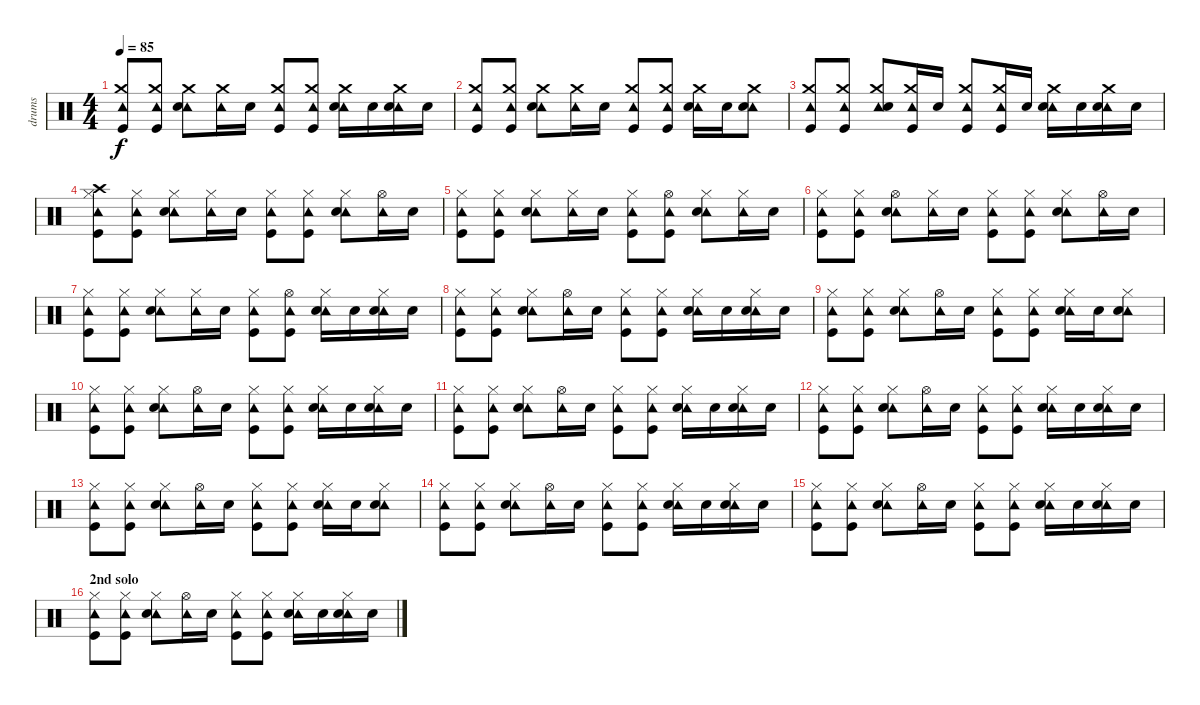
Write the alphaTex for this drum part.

\track ("drums" "drums") {instrument percussion}
\staff {score}
\articulation defaults
\ts (4 4)
\tempo 85
\clef neutral
\ks c
("Tambourine (hit)" "Crash medium (hit)" "Kick (hit)").8{dy f} ("Tambourine (hit)" "Crash medium (hit)" "Kick (hit)").8 ("Tambourine (hit)" "Crash medium (hit)" "Electric Snare (hit)").8 ("Tambourine (hit)" "Crash medium (hit)").16 "Electric Snare (hit)".16 ("Tambourine (hit)" "Crash medium (hit)" "Kick (hit)").8 ("Tambourine (hit)" "Crash medium (hit)" "Kick (hit)").8 ("Tambourine (hit)" "Crash medium (hit)" "Electric Snare (hit)").16 "Electric Snare (hit)".16 ("Tambourine (hit)" "Crash medium (hit)" "Electric Snare (hit)").16 "Electric Snare (hit)".16 |
("Tambourine (hit)" "Crash medium (hit)" "Kick (hit)").8 ("Tambourine (hit)" "Crash medium (hit)" "Kick (hit)").8 ("Tambourine (hit)" "Crash medium (hit)" "Electric Snare (hit)").8 ("Tambourine (hit)" "Crash medium (hit)").16 "Electric Snare (hit)".16 ("Tambourine (hit)" "Crash medium (hit)" "Kick (hit)").8 ("Tambourine (hit)" "Crash medium (hit)" "Kick (hit)").8 ("Tambourine (hit)" "Crash medium (hit)" "Electric Snare (hit)").16 "Electric Snare (hit)".16 ("Tambourine (hit)" "Crash medium (hit)" "Electric Snare (hit)").8 |
("Tambourine (hit)" "Crash medium (hit)" "Kick (hit)").8 ("Tambourine (hit)" "Crash medium (hit)" "Kick (hit)").8 ("Tambourine (hit)" "Crash medium (hit)" "Electric Snare (hit)").8 ("Tambourine (hit)" "Crash medium (hit)" "Kick (hit)").16 "Electric Snare (hit)".16 ("Tambourine (hit)" "Crash medium (hit)" "Kick (hit)").8 ("Tambourine (hit)" "Crash medium (hit)" "Kick (hit)").16 "Electric Snare (hit)".16 ("Tambourine (hit)" "Crash medium (hit)" "Electric Snare (hit)").16 "Electric Snare (hit)".16 ("Tambourine (hit)" "Crash medium (hit)" "Electric Snare (hit)").16 "Electric Snare (hit)".16 |
\section ("" "")
("Tambourine (hit)" "Hi-Hat (closed)" "Crash high (hit)" "Kick (hit)").8 ("Tambourine (hit)" "Hi-Hat (closed)" "Kick (hit)").8 ("Tambourine (hit)" "Hi-Hat (closed)" "Electric Snare (hit)").8 ("Tambourine (hit)" "Hi-Hat (closed)").16 "Electric Snare (hit)".16 ("Tambourine (hit)" "Hi-Hat (closed)" "Kick (hit)").8 ("Tambourine (hit)" "Hi-Hat (closed)" "Kick (hit)").8 ("Tambourine (hit)" "Hi-Hat (closed)" "Electric Snare (hit)").8 ("Tambourine (hit)" "Hi-Hat (open)").16 "Electric Snare (hit)".16 |
("Tambourine (hit)" "Hi-Hat (closed)" "Kick (hit)").8 ("Tambourine (hit)" "Hi-Hat (closed)" "Kick (hit)").8 ("Tambourine (hit)" "Hi-Hat (closed)" "Electric Snare (hit)").8 ("Tambourine (hit)" "Hi-Hat (closed)").16 "Electric Snare (hit)".16 ("Tambourine (hit)" "Hi-Hat (closed)" "Kick (hit)").8 ("Tambourine (hit)" "Hi-Hat (open)" "Kick (hit)").8 ("Tambourine (hit)" "Hi-Hat (closed)" "Electric Snare (hit)").8 ("Tambourine (hit)" "Hi-Hat (closed)").16 "Electric Snare (hit)".16 |
("Tambourine (hit)" "Hi-Hat (closed)" "Kick (hit)").8 ("Tambourine (hit)" "Hi-Hat (closed)" "Kick (hit)").8 ("Tambourine (hit)" "Hi-Hat (open)" "Electric Snare (hit)").8 ("Tambourine (hit)" "Hi-Hat (closed)").16 "Electric Snare (hit)".16 ("Tambourine (hit)" "Hi-Hat (closed)" "Kick (hit)").8 ("Tambourine (hit)" "Hi-Hat (closed)" "Kick (hit)").8 ("Tambourine (hit)" "Hi-Hat (closed)" "Electric Snare (hit)").8 ("Tambourine (hit)" "Hi-Hat (open)").16 "Electric Snare (hit)".16 |
("Tambourine (hit)" "Hi-Hat (closed)" "Kick (hit)").8 ("Tambourine (hit)" "Hi-Hat (closed)" "Kick (hit)").8 ("Tambourine (hit)" "Hi-Hat (closed)" "Electric Snare (hit)").8 ("Tambourine (hit)" "Hi-Hat (closed)").16 "Electric Snare (hit)".16 ("Tambourine (hit)" "Hi-Hat (closed)" "Kick (hit)").8 ("Tambourine (hit)" "Hi-Hat (open)" "Kick (hit)").8 ("Tambourine (hit)" "Hi-Hat (closed)" "Electric Snare (hit)").16 "Electric Snare (hit)".16 ("Tambourine (hit)" "Hi-Hat (closed)" "Electric Snare (hit)").16 "Electric Snare (hit)".16 |
\section ("" "")
("Tambourine (hit)" "Hi-Hat (closed)" "Kick (hit)").8 ("Tambourine (hit)" "Hi-Hat (closed)" "Kick (hit)").8 ("Tambourine (hit)" "Hi-Hat (closed)" "Electric Snare (hit)").8 ("Tambourine (hit)" "Hi-Hat (open)").16 "Electric Snare (hit)".16 ("Tambourine (hit)" "Hi-Hat (closed)" "Kick (hit)").8 ("Tambourine (hit)" "Hi-Hat (closed)" "Kick (hit)").8 ("Tambourine (hit)" "Hi-Hat (closed)" "Electric Snare (hit)").16 "Electric Snare (hit)".16 ("Tambourine (hit)" "Hi-Hat (closed)" "Electric Snare (hit)").16 "Electric Snare (hit)".16 |
("Tambourine (hit)" "Hi-Hat (closed)" "Kick (hit)").8 ("Tambourine (hit)" "Hi-Hat (closed)" "Kick (hit)").8 ("Tambourine (hit)" "Hi-Hat (closed)" "Electric Snare (hit)").8 ("Tambourine (hit)" "Hi-Hat (open)").16 "Electric Snare (hit)".16 ("Tambourine (hit)" "Hi-Hat (closed)" "Kick (hit)").8 ("Tambourine (hit)" "Hi-Hat (closed)" "Kick (hit)").8 ("Tambourine (hit)" "Hi-Hat (closed)" "Electric Snare (hit)").16 "Electric Snare (hit)".16 ("Tambourine (hit)" "Hi-Hat (closed)" "Electric Snare (hit)").8 |
("Tambourine (hit)" "Hi-Hat (closed)" "Kick (hit)").8 ("Tambourine (hit)" "Hi-Hat (closed)" "Kick (hit)").8 ("Tambourine (hit)" "Hi-Hat (closed)" "Electric Snare (hit)").8 ("Tambourine (hit)" "Hi-Hat (open)").16 "Electric Snare (hit)".16 ("Tambourine (hit)" "Hi-Hat (closed)" "Kick (hit)").8 ("Tambourine (hit)" "Hi-Hat (closed)" "Kick (hit)").8 ("Tambourine (hit)" "Hi-Hat (closed)" "Electric Snare (hit)").16 "Electric Snare (hit)".16 ("Tambourine (hit)" "Hi-Hat (closed)" "Electric Snare (hit)").16 "Electric Snare (hit)".16 |
("Tambourine (hit)" "Hi-Hat (closed)" "Kick (hit)").8 ("Tambourine (hit)" "Hi-Hat (closed)" "Kick (hit)").8 ("Tambourine (hit)" "Hi-Hat (closed)" "Electric Snare (hit)").8 ("Tambourine (hit)" "Hi-Hat (open)").16 "Electric Snare (hit)".16 ("Tambourine (hit)" "Hi-Hat (closed)" "Kick (hit)").8 ("Tambourine (hit)" "Hi-Hat (closed)" "Kick (hit)").8 ("Tambourine (hit)" "Hi-Hat (closed)" "Electric Snare (hit)").16 "Electric Snare (hit)".16 ("Tambourine (hit)" "Hi-Hat (closed)" "Electric Snare (hit)").16 "Electric Snare (hit)".16 |
("Tambourine (hit)" "Hi-Hat (closed)" "Kick (hit)").8 ("Tambourine (hit)" "Hi-Hat (closed)" "Kick (hit)").8 ("Tambourine (hit)" "Hi-Hat (closed)" "Electric Snare (hit)").8 ("Tambourine (hit)" "Hi-Hat (open)").16 "Electric Snare (hit)".16 ("Tambourine (hit)" "Hi-Hat (closed)" "Kick (hit)").8 ("Tambourine (hit)" "Hi-Hat (closed)" "Kick (hit)").8 ("Tambourine (hit)" "Hi-Hat (closed)" "Electric Snare (hit)").16 "Electric Snare (hit)".16 ("Tambourine (hit)" "Hi-Hat (closed)" "Electric Snare (hit)").16 "Electric Snare (hit)".16 |
("Tambourine (hit)" "Hi-Hat (closed)" "Kick (hit)").8 ("Tambourine (hit)" "Hi-Hat (closed)" "Kick (hit)").8 ("Tambourine (hit)" "Hi-Hat (closed)" "Electric Snare (hit)").8 ("Tambourine (hit)" "Hi-Hat (open)").16 "Electric Snare (hit)".16 ("Tambourine (hit)" "Hi-Hat (closed)" "Kick (hit)").8 ("Tambourine (hit)" "Hi-Hat (closed)" "Kick (hit)").8 ("Tambourine (hit)" "Hi-Hat (closed)" "Electric Snare (hit)").16 "Electric Snare (hit)".16 ("Tambourine (hit)" "Hi-Hat (closed)" "Electric Snare (hit)").8 |
("Tambourine (hit)" "Hi-Hat (closed)" "Kick (hit)").8 ("Tambourine (hit)" "Hi-Hat (closed)" "Kick (hit)").8 ("Tambourine (hit)" "Hi-Hat (closed)" "Electric Snare (hit)").8 ("Tambourine (hit)" "Hi-Hat (open)").16 "Electric Snare (hit)".16 ("Tambourine (hit)" "Hi-Hat (closed)" "Kick (hit)").8 ("Tambourine (hit)" "Hi-Hat (closed)" "Kick (hit)").8 ("Tambourine (hit)" "Hi-Hat (closed)" "Electric Snare (hit)").16 "Electric Snare (hit)".16 ("Tambourine (hit)" "Hi-Hat (closed)" "Electric Snare (hit)").16 "Electric Snare (hit)".16 |
("Tambourine (hit)" "Hi-Hat (closed)" "Kick (hit)").8 ("Tambourine (hit)" "Hi-Hat (closed)" "Kick (hit)").8 ("Tambourine (hit)" "Hi-Hat (closed)" "Electric Snare (hit)").8 ("Tambourine (hit)" "Hi-Hat (open)").16 "Electric Snare (hit)".16 ("Tambourine (hit)" "Hi-Hat (closed)" "Kick (hit)").8 ("Tambourine (hit)" "Hi-Hat (closed)" "Kick (hit)").8 ("Tambourine (hit)" "Hi-Hat (closed)" "Electric Snare (hit)").16 "Electric Snare (hit)".16 ("Tambourine (hit)" "Hi-Hat (closed)" "Electric Snare (hit)").16 "Electric Snare (hit)".16 |
\section ("" "2nd solo")
("Tambourine (hit)" "Hi-Hat (closed)" "Kick (hit)").8 ("Tambourine (hit)" "Hi-Hat (closed)" "Kick (hit)").8 ("Tambourine (hit)" "Hi-Hat (closed)" "Electric Snare (hit)").8 ("Tambourine (hit)" "Hi-Hat (open)").16 "Electric Snare (hit)".16 ("Tambourine (hit)" "Hi-Hat (closed)" "Kick (hit)").8 ("Tambourine (hit)" "Hi-Hat (closed)" "Kick (hit)").8 ("Tambourine (hit)" "Hi-Hat (closed)" "Electric Snare (hit)").16 "Electric Snare (hit)".16 ("Tambourine (hit)" "Hi-Hat (closed)" "Electric Snare (hit)").16 "Electric Snare (hit)".16
